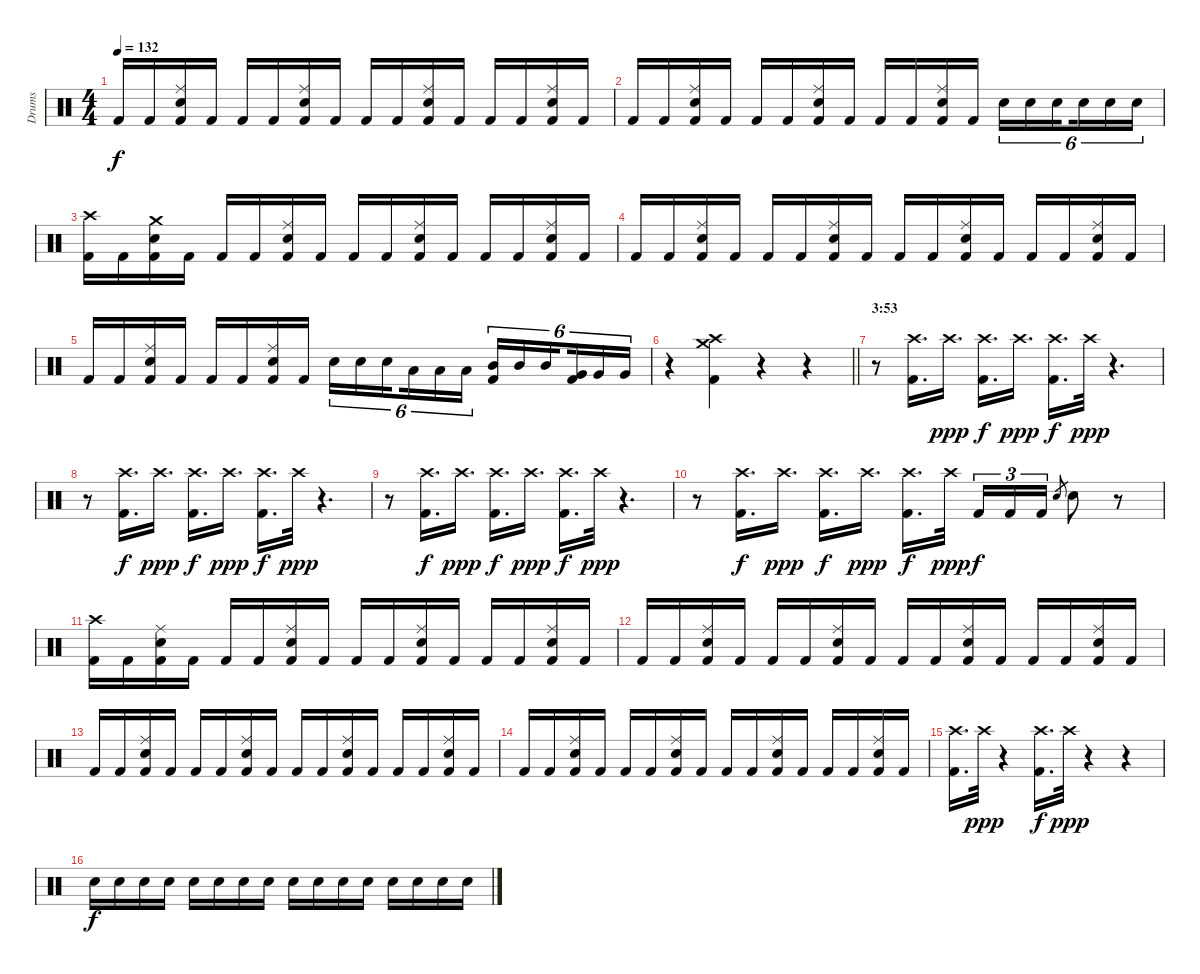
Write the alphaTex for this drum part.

\track ("Drums" "Drums") {instrument percussion}
\staff {score}
\articulation defaults
\ts (4 4)
\tempo 132
\clef neutral
\ks c "Kick (hit) 2".16{dy f} "Kick (hit) 2".16
("Ride (middle)" "Snare (hit) 2" "Kick (hit) 2").16 "Kick (hit) 2".16 "Kick (hit) 2".16 "Kick (hit) 2".16 ("Ride (middle)" "Snare (hit) 2" "Kick (hit) 2").16 "Kick (hit) 2".16 "Kick (hit) 2".16 "Kick (hit) 2".16 ("Ride (middle)" "Snare (hit) 2" "Kick (hit) 2").16 "Kick (hit) 2".16 "Kick (hit) 2".16 "Kick (hit) 2".16 ("Ride (middle)" "Snare (hit) 2" "Kick (hit) 2").16 "Kick (hit) 2".16 |
"Kick (hit) 2".16 "Kick (hit) 2".16 ("Ride (middle)" "Snare (hit) 2" "Kick (hit) 2").16 "Kick (hit) 2".16 "Kick (hit) 2".16 "Kick (hit) 2".16 ("Ride (middle)" "Snare (hit) 2" "Kick (hit) 2").16 "Kick (hit) 2".16 "Kick (hit) 2".16 "Kick (hit) 2".16 ("Ride (middle)" "Snare (hit) 2" "Kick (hit) 2").16 "Kick (hit) 2".16 "Snare (hit) 2".16{tu (6 4)} "Snare (hit) 2".16{tu (6 4)} "Snare (hit) 2".16{tu (6 4) beam splitsecondary} "Snare (hit) 2".16{tu (6 4)} "Snare (hit) 2".16{tu (6 4)} "Snare (hit) 2".16{tu (6 4)} |
("Crash high (hit)" "Kick (hit) 2").16 "Kick (hit) 2".16 ("Crash medium (hit)" "Snare (hit) 2" "Kick (hit) 2").16 "Kick (hit) 2".16 "Kick (hit) 2".16 "Kick (hit) 2".16 ("Ride (middle)" "Snare (hit) 2" "Kick (hit) 2").16 "Kick (hit) 2".16 "Kick (hit) 2".16 "Kick (hit) 2".16 ("Ride (middle)" "Snare (hit) 2" "Kick (hit) 2").16 "Kick (hit) 2".16 "Kick (hit) 2".16 "Kick (hit) 2".16 ("Ride (middle)" "Snare (hit) 2" "Kick (hit) 2").16 "Kick (hit) 2".16 |
"Kick (hit) 2".16 "Kick (hit) 2".16 ("Ride (middle)" "Snare (hit) 2" "Kick (hit) 2").16 "Kick (hit) 2".16 "Kick (hit) 2".16 "Kick (hit) 2".16 ("Ride (middle)" "Snare (hit) 2" "Kick (hit) 2").16 "Kick (hit) 2".16 "Kick (hit) 2".16 "Kick (hit) 2".16 ("Ride (middle)" "Snare (hit) 2" "Kick (hit) 2").16 "Kick (hit) 2".16 "Kick (hit) 2".16 "Kick (hit) 2".16 ("Ride (middle)" "Snare (hit) 2" "Kick (hit) 2").16 "Kick (hit) 2".16 |
"Kick (hit) 2".16 "Kick (hit) 2".16 ("Ride (middle)" "Snare (hit) 2" "Kick (hit) 2").16 "Kick (hit) 2".16 "Kick (hit) 2".16 "Kick (hit) 2".16 ("Ride (middle)" "Snare (hit) 2" "Kick (hit) 2").16 "Kick (hit) 2".16 "Snare (hit) 2".16{tu (6 4)} "Snare (hit) 2".16{tu (6 4)} "Snare (hit) 2".16{tu (6 4) beam splitsecondary} "Low Tom (hit)".16{tu (6 4)} "Low Tom (hit)".16{tu (6 4)} "Low Tom (hit)".16{tu (6 4)} ("Mid Tom (hit)" "Kick (hit) 2").16{tu (6 4)} "Mid Tom (hit)".16{tu (6 4)} "Mid Tom (hit)".16{tu (6 4) beam splitsecondary} ("Very Low Tom (hit)" "Kick (hit) 2").16{tu (6 4)} "Very Low Tom (hit)".16{tu (6 4)} "Very Low Tom (hit)".16{tu (6 4)} |
\barLineRight lightlight
r.4 ("Crash high (hit)" "Crash medium (hit)" "Kick (hit) 2").4 r.4 r.4 |
\section ("" "3:53")
r.8 ("Crash high (hit)" "Kick (hit) 2").16{d} "Crash high (hit)".16{d dy ppp} ("Crash high (hit)" "Kick (hit) 2").16{d dy f} "Crash high (hit)".16{d dy ppp} ("Crash high (hit)" "Kick (hit) 2").16{d dy f} "Crash high (hit)".32{dy ppp} r.4{d} |
r.8 ("Crash high (hit)" "Kick (hit) 2").16{d dy f} "Crash high (hit)".16{d dy ppp} ("Crash high (hit)" "Kick (hit) 2").16{d dy f} "Crash high (hit)".16{d dy ppp} ("Crash high (hit)" "Kick (hit) 2").16{d dy f} "Crash high (hit)".32{dy ppp} r.4{d} |
r.8 ("Crash high (hit)" "Kick (hit) 2").16{d dy f} "Crash high (hit)".16{d dy ppp} ("Crash high (hit)" "Kick (hit) 2").16{d dy f} "Crash high (hit)".16{d dy ppp} ("Crash high (hit)" "Kick (hit) 2").16{d dy f} "Crash high (hit)".32{dy ppp} r.4{d} |
r.8 ("Crash high (hit)" "Kick (hit) 2").16{d dy f} "Crash high (hit)".16{d dy ppp} ("Crash high (hit)" "Kick (hit) 2").16{d dy f} "Crash high (hit)".16{d dy ppp} ("Crash high (hit)" "Kick (hit) 2").16{d dy f} "Crash high (hit)".32{dy ppp beam splitsecondary} "Kick (hit) 2".16{tu (3 2) dy f} "Kick (hit) 2".16{tu (3 2)} "Kick (hit) 2".16{tu (3 2)} "Snare (hit) 2".8{gr} "Snare (hit) 2".8 r.8 |
("Crash high (hit)" "Kick (hit) 2").16 "Kick (hit) 2".16 ("Ride (middle)" "Snare (hit) 2" "Kick (hit) 2").16 "Kick (hit) 2".16 "Kick (hit) 2".16 "Kick (hit) 2".16 ("Ride (middle)" "Snare (hit) 2" "Kick (hit) 2").16 "Kick (hit) 2".16 "Kick (hit) 2".16 "Kick (hit) 2".16 ("Ride (middle)" "Snare (hit) 2" "Kick (hit) 2").16 "Kick (hit) 2".16 "Kick (hit) 2".16 "Kick (hit) 2".16 ("Ride (middle)" "Snare (hit) 2" "Kick (hit) 2").16 "Kick (hit) 2".16 |
"Kick (hit) 2".16 "Kick (hit) 2".16 ("Ride (middle)" "Snare (hit) 2" "Kick (hit) 2").16 "Kick (hit) 2".16 "Kick (hit) 2".16 "Kick (hit) 2".16 ("Ride (middle)" "Snare (hit) 2" "Kick (hit) 2").16 "Kick (hit) 2".16 "Kick (hit) 2".16 "Kick (hit) 2".16 ("Ride (middle)" "Snare (hit) 2" "Kick (hit) 2").16 "Kick (hit) 2".16 "Kick (hit) 2".16 "Kick (hit) 2".16 ("Ride (middle)" "Snare (hit) 2" "Kick (hit) 2").16 "Kick (hit) 2".16 |
"Kick (hit) 2".16 "Kick (hit) 2".16 ("Ride (middle)" "Snare (hit) 2" "Kick (hit) 2").16 "Kick (hit) 2".16 "Kick (hit) 2".16 "Kick (hit) 2".16 ("Ride (middle)" "Snare (hit) 2" "Kick (hit) 2").16 "Kick (hit) 2".16 "Kick (hit) 2".16 "Kick (hit) 2".16 ("Ride (middle)" "Snare (hit) 2" "Kick (hit) 2").16 "Kick (hit) 2".16 "Kick (hit) 2".16 "Kick (hit) 2".16 ("Ride (middle)" "Snare (hit) 2" "Kick (hit) 2").16 "Kick (hit) 2".16 |
"Kick (hit) 2".16 "Kick (hit) 2".16 ("Ride (middle)" "Snare (hit) 2" "Kick (hit) 2").16 "Kick (hit) 2".16 "Kick (hit) 2".16 "Kick (hit) 2".16 ("Ride (middle)" "Snare (hit) 2" "Kick (hit) 2").16 "Kick (hit) 2".16 "Kick (hit) 2".16 "Kick (hit) 2".16 ("Ride (middle)" "Snare (hit) 2" "Kick (hit) 2").16 "Kick (hit) 2".16 "Kick (hit) 2".16 "Kick (hit) 2".16 ("Ride (middle)" "Snare (hit) 2" "Kick (hit) 2").16 "Kick (hit) 2".16 |
("Crash high (hit)" "Kick (hit) 2").16{d} "Crash high (hit)".32{dy ppp} r.4 ("Crash high (hit)" "Kick (hit) 2").16{d dy f} "Crash high (hit)".32{dy ppp} r.4 r.4 |
"Snare (hit) 2".16{dy f} "Snare (hit) 2".16 "Snare (hit) 2".16 "Snare (hit) 2".16 "Snare (hit) 2".16 "Snare (hit) 2".16 "Snare (hit) 2".16 "Snare (hit) 2".16 "Snare (hit) 2".16 "Snare (hit) 2".16 "Snare (hit) 2".16 "Snare (hit) 2".16 "Snare (hit) 2".16 "Snare (hit) 2".16 "Snare (hit) 2".16 "Snare (hit) 2".16
